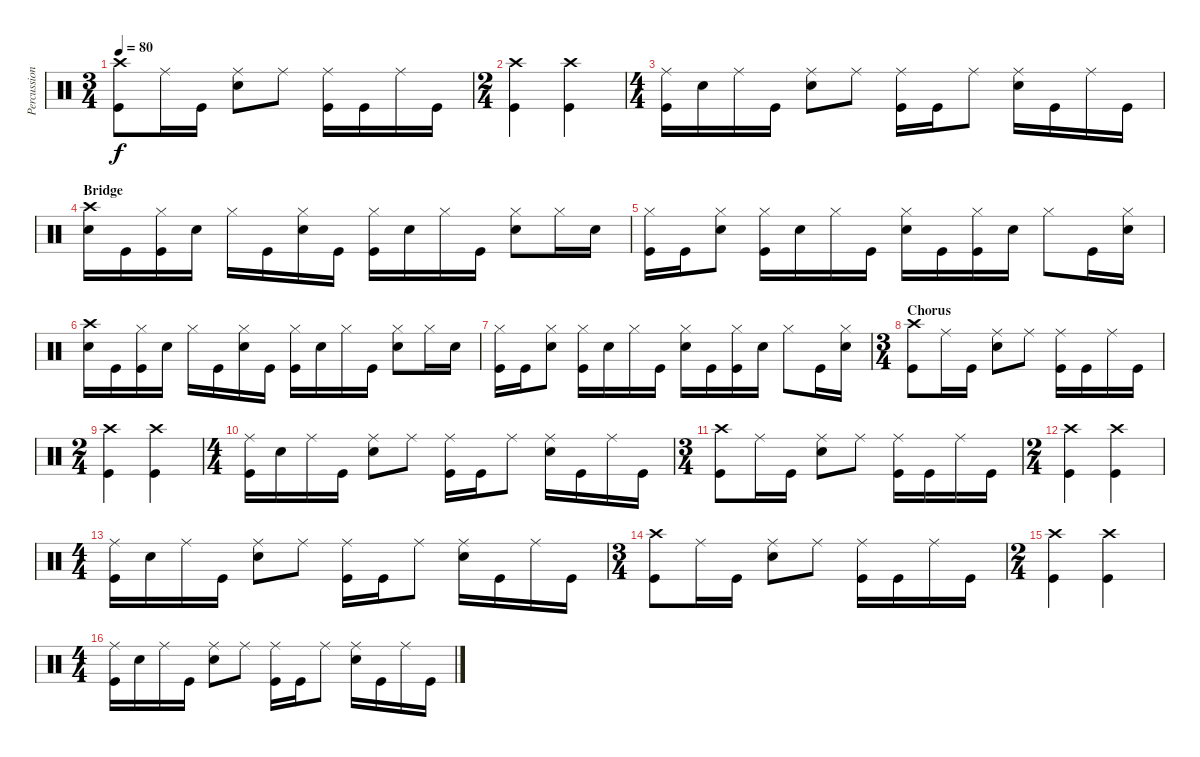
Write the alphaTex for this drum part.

\track ("Percussion" "Percussion") {instrument percussion}
\staff {score}
\articulation defaults
\ts (3 4)
\tempo 80
\clef neutral
\ks c
("Crash high (hit)" "Kick (hit)").8{dy f} "Ride (middle)".16 "Kick (hit)".16 ("Ride (middle)" "Snare (hit) 2").8 "Ride (middle)".8 ("Ride (middle)" "Kick (hit)").16 "Kick (hit)".16 "Ride (middle)".16 "Kick (hit)".16 |
\ts (2 4)
("Crash high (hit)" "Kick (hit)").4 ("Crash high (hit)" "Kick (hit)").4 |
\ts (4 4)
("Ride (middle)" "Kick (hit)").16 "Snare (hit) 2".16 "Ride (middle)".16 "Kick (hit)".16 ("Ride (middle)" "Snare (hit) 2").8 "Ride (middle)".8 ("Ride (middle)" "Kick (hit)").16 "Kick (hit)".16 "Ride (middle)".8 ("Ride (middle)" "Snare (hit) 2").16 "Kick (hit)".16 "Ride (middle)".16 "Kick (hit)".16 |
\section ("" "Bridge")
("Crash high (hit)" "Snare (hit) 2").16 "Kick (hit)".16 ("Hi-Hat (closed)" "Kick (hit)").16 "Snare (hit) 2".16 "Hi-Hat (closed)".16 "Kick (hit)".16 ("Hi-Hat (closed)" "Snare (hit) 2").16 "Kick (hit)".16 ("Hi-Hat (closed)" "Kick (hit)").16 "Snare (hit) 2".16 "Hi-Hat (closed)".16 "Kick (hit)".16 ("Hi-Hat (closed)" "Snare (hit) 2").8 "Hi-Hat (closed)".16 "Snare (hit) 2".16 |
("Hi-Hat (closed)" "Kick (hit)").16 "Kick (hit)".16 ("Hi-Hat (closed)" "Snare (hit) 2").8 ("Hi-Hat (closed)" "Kick (hit)").16 "Snare (hit) 2".16 "Hi-Hat (closed)".16 "Kick (hit)".16 ("Hi-Hat (closed)" "Snare (hit) 2").16 "Kick (hit)".16 ("Hi-Hat (closed)" "Kick (hit)").16 "Snare (hit) 2".16 "Hi-Hat (closed)".8 "Kick (hit)".16 ("Hi-Hat (closed)" "Snare (hit) 2").16 |
("Crash high (hit)" "Snare (hit) 2").16 "Kick (hit)".16 ("Hi-Hat (closed)" "Kick (hit)").16 "Snare (hit) 2".16 "Hi-Hat (closed)".16 "Kick (hit)".16 ("Hi-Hat (closed)" "Snare (hit) 2").16 "Kick (hit)".16 ("Hi-Hat (closed)" "Kick (hit)").16 "Snare (hit) 2".16 "Hi-Hat (closed)".16 "Kick (hit)".16 ("Hi-Hat (closed)" "Snare (hit) 2").8 "Hi-Hat (closed)".16 "Snare (hit) 2".16 |
("Hi-Hat (closed)" "Kick (hit)").16 "Kick (hit)".16 ("Hi-Hat (closed)" "Snare (hit) 2").8 ("Hi-Hat (closed)" "Kick (hit)").16 "Snare (hit) 2".16 "Hi-Hat (closed)".16 "Kick (hit)".16 ("Hi-Hat (closed)" "Snare (hit) 2").16 "Kick (hit)".16 ("Hi-Hat (closed)" "Kick (hit)").16 "Snare (hit) 2".16 "Hi-Hat (closed)".8 "Kick (hit)".16 ("Hi-Hat (closed)" "Snare (hit) 2").16 |
\ts (3 4)
\section ("" "Chorus")
("Crash high (hit)" "Kick (hit)").8 "Ride (middle)".16 "Kick (hit)".16 ("Ride (middle)" "Snare (hit) 2").8 "Ride (middle)".8 ("Ride (middle)" "Kick (hit)").16 "Kick (hit)".16 "Ride (middle)".16 "Kick (hit)".16 |
\ts (2 4)
("Crash high (hit)" "Kick (hit)").4 ("Crash high (hit)" "Kick (hit)").4 |
\ts (4 4)
("Ride (middle)" "Kick (hit)").16 "Snare (hit) 2".16 "Ride (middle)".16 "Kick (hit)".16 ("Ride (middle)" "Snare (hit) 2").8 "Ride (middle)".8 ("Ride (middle)" "Kick (hit)").16 "Kick (hit)".16 "Ride (middle)".8 ("Ride (middle)" "Snare (hit) 2").16 "Kick (hit)".16 "Ride (middle)".16 "Kick (hit)".16 |
\ts (3 4)
("Crash high (hit)" "Kick (hit)").8 "Ride (middle)".16 "Kick (hit)".16 ("Ride (middle)" "Snare (hit) 2").8 "Ride (middle)".8 ("Ride (middle)" "Kick (hit)").16 "Kick (hit)".16 "Ride (middle)".16 "Kick (hit)".16 |
\ts (2 4)
("Crash high (hit)" "Kick (hit)").4 ("Crash high (hit)" "Kick (hit)").4 |
\ts (4 4)
("Ride (middle)" "Kick (hit)").16 "Snare (hit) 2".16 "Ride (middle)".16 "Kick (hit)".16 ("Ride (middle)" "Snare (hit) 2").8 "Ride (middle)".8 ("Ride (middle)" "Kick (hit)").16 "Kick (hit)".16 "Ride (middle)".8 ("Ride (middle)" "Snare (hit) 2").16 "Kick (hit)".16 "Ride (middle)".16 "Kick (hit)".16 |
\ts (3 4)
("Crash high (hit)" "Kick (hit)").8 "Ride (middle)".16 "Kick (hit)".16 ("Ride (middle)" "Snare (hit) 2").8 "Ride (middle)".8 ("Ride (middle)" "Kick (hit)").16 "Kick (hit)".16 "Ride (middle)".16 "Kick (hit)".16 |
\ts (2 4)
("Crash high (hit)" "Kick (hit)").4 ("Crash high (hit)" "Kick (hit)").4 |
\ts (4 4)
("Ride (middle)" "Kick (hit)").16 "Snare (hit) 2".16 "Ride (middle)".16 "Kick (hit)".16 ("Ride (middle)" "Snare (hit) 2").8 "Ride (middle)".8 ("Ride (middle)" "Kick (hit)").16 "Kick (hit)".16 "Ride (middle)".8 ("Ride (middle)" "Snare (hit) 2").16 "Kick (hit)".16 "Ride (middle)".16 "Kick (hit)".16
